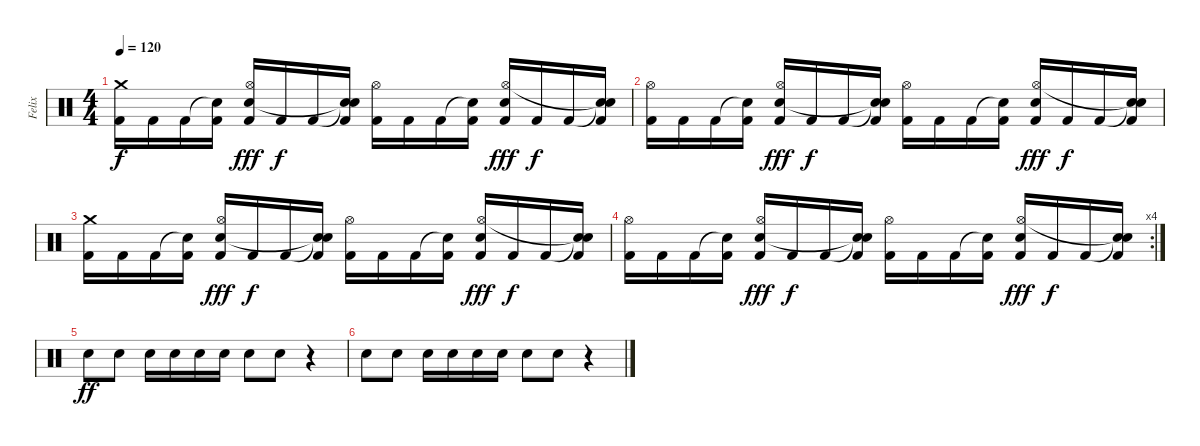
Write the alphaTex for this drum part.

\track ("Felix" "Felix") {instrument percussion}
\staff {score}
\articulation defaults
\ts (4 4)
\tempo 120
\clef neutral
\ks c
("Crash medium (hit)" "Kick (hit) 2").16{dy f} "Kick (hit) 2".16 "Kick (hit) 2".16 ("Snare (hit)"{t} "Kick (hit) 2").16 ("Hi-Hat (open)" "Electric Snare (hit)" "Kick (hit) 2").16{dy fff} "Kick (hit) 2".16{dy f} "Kick (hit) 2".16 ("Snare (hit)"{t} "Snare (hit)"{t} "Kick (hit) 2").16 ("Hi-Hat (open)" "Kick (hit) 2").16 "Kick (hit) 2".16 "Kick (hit) 2".16 ("Snare (hit)"{t} "Kick (hit) 2").16 ("Electric Snare (hit)" "Hi-Hat (open)" "Kick (hit) 2").16{dy fff} "Kick (hit) 2".16{dy f} "Kick (hit) 2".16 ("Snare (hit)"{t} "Snare (hit)"{t} "Kick (hit) 2").16 |
("Hi-Hat (open)" "Kick (hit) 2").16 "Kick (hit) 2".16 "Kick (hit) 2".16 ("Snare (hit)"{t} "Kick (hit) 2").16 ("Hi-Hat (open)" "Electric Snare (hit)" "Kick (hit) 2").16{dy fff} "Kick (hit) 2".16{dy f} "Kick (hit) 2".16 ("Snare (hit)"{t} "Snare (hit)"{t} "Kick (hit) 2").16 ("Hi-Hat (open)" "Kick (hit) 2").16 "Kick (hit) 2".16 "Kick (hit) 2".16 ("Snare (hit)"{t} "Kick (hit) 2").16 ("Electric Snare (hit)" "Hi-Hat (open)" "Kick (hit) 2").16{dy fff} "Kick (hit) 2".16{dy f} "Kick (hit) 2".16 ("Snare (hit)"{t} "Snare (hit)"{t} "Kick (hit) 2").16 |
("Crash medium (hit)" "Kick (hit) 2").16 "Kick (hit) 2".16 "Kick (hit) 2".16 ("Snare (hit)"{t} "Kick (hit) 2").16 ("Hi-Hat (open)" "Electric Snare (hit)" "Kick (hit) 2").16{dy fff} "Kick (hit) 2".16{dy f} "Kick (hit) 2".16 ("Snare (hit)"{t} "Snare (hit)"{t} "Kick (hit) 2").16 ("Hi-Hat (open)" "Kick (hit) 2").16 "Kick (hit) 2".16 "Kick (hit) 2".16 ("Snare (hit)"{t} "Kick (hit) 2").16 ("Electric Snare (hit)" "Hi-Hat (open)" "Kick (hit) 2").16{dy fff} "Kick (hit) 2".16{dy f} "Kick (hit) 2".16 ("Snare (hit)"{t} "Snare (hit)"{t} "Kick (hit) 2").16 |
\rc 4
("Hi-Hat (open)" "Kick (hit) 2").16 "Kick (hit) 2".16 "Kick (hit) 2".16 ("Snare (hit)"{t} "Kick (hit) 2").16 ("Hi-Hat (open)" "Electric Snare (hit)" "Kick (hit) 2").16{dy fff} "Kick (hit) 2".16{dy f} "Kick (hit) 2".16 ("Snare (hit)"{t} "Snare (hit)"{t} "Kick (hit) 2").16 ("Hi-Hat (open)" "Kick (hit) 2").16 "Kick (hit) 2".16 "Kick (hit) 2".16 ("Snare (hit)"{t} "Kick (hit) 2").16 ("Electric Snare (hit)" "Hi-Hat (open)" "Kick (hit) 2").16{dy fff} "Kick (hit) 2".16{dy f} "Kick (hit) 2".16 ("Snare (hit)"{t} "Snare (hit)"{t} "Kick (hit) 2").16 |
"Electric Snare (hit)".8{dy ff} "Electric Snare (hit)".8 "Electric Snare (hit)".16 "Electric Snare (hit)".16 "Electric Snare (hit)".16 "Electric Snare (hit)".16 "Electric Snare (hit)".8 "Electric Snare (hit)".8 r.4 |
"Electric Snare (hit)".8 "Electric Snare (hit)".8 "Electric Snare (hit)".16 "Electric Snare (hit)".16 "Electric Snare (hit)".16 "Electric Snare (hit)".16 "Electric Snare (hit)".8 "Electric Snare (hit)".8 r.4
